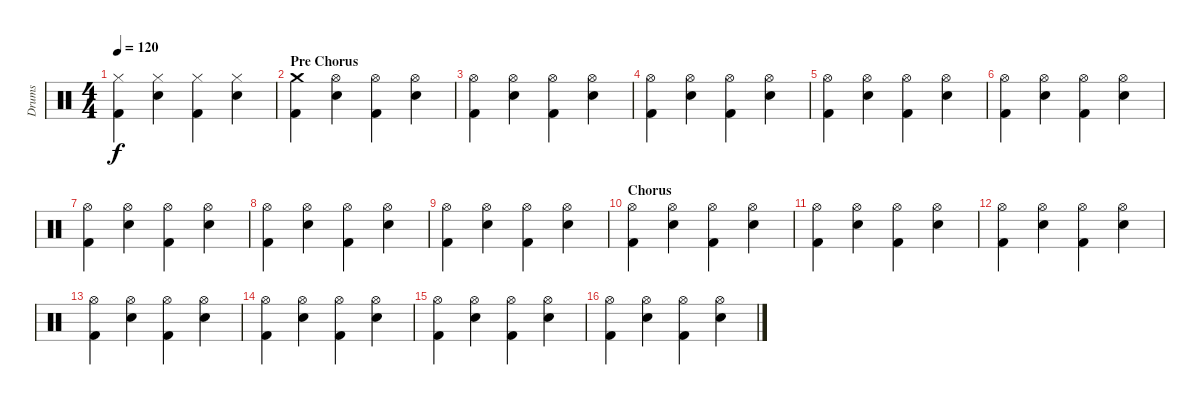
\track ("Drums" "Drums") {instrument percussion}
\staff {score}
\articulation defaults
\ts (4 4)
\tempo 120
\clef neutral
\ks c
("Hi-Hat (closed)" "Kick (hit) 2").4{dy f} ("Hi-Hat (closed)" "Electric Snare (hit)").4 ("Hi-Hat (closed)" "Kick (hit) 2").4 ("Hi-Hat (closed)" "Electric Snare (hit)").4 |
\section ("" "Pre Chorus")
("Crash medium (hit)" "Kick (hit) 2").4 ("Hi-Hat (open)" "Electric Snare (hit)").4 ("Hi-Hat (open)" "Kick (hit) 2").4 ("Hi-Hat (open)" "Electric Snare (hit)").4 |
("Hi-Hat (open)" "Kick (hit) 2").4 ("Hi-Hat (open)" "Electric Snare (hit)").4 ("Hi-Hat (open)" "Kick (hit) 2").4 ("Hi-Hat (open)" "Electric Snare (hit)").4 |
("Hi-Hat (open)" "Kick (hit) 2").4 ("Hi-Hat (open)" "Electric Snare (hit)").4 ("Hi-Hat (open)" "Kick (hit) 2").4 ("Hi-Hat (open)" "Electric Snare (hit)").4 |
("Hi-Hat (open)" "Kick (hit) 2").4 ("Hi-Hat (open)" "Electric Snare (hit)").4 ("Hi-Hat (open)" "Kick (hit) 2").4 ("Hi-Hat (open)" "Electric Snare (hit)").4 |
("Hi-Hat (open)" "Kick (hit) 2").4 ("Hi-Hat (open)" "Electric Snare (hit)").4 ("Hi-Hat (open)" "Kick (hit) 2").4 ("Hi-Hat (open)" "Electric Snare (hit)").4 |
("Hi-Hat (open)" "Kick (hit) 2").4 ("Hi-Hat (open)" "Electric Snare (hit)").4 ("Hi-Hat (open)" "Kick (hit) 2").4 ("Hi-Hat (open)" "Electric Snare (hit)").4 |
("Hi-Hat (open)" "Kick (hit) 2").4 ("Hi-Hat (open)" "Electric Snare (hit)").4 ("Hi-Hat (open)" "Kick (hit) 2").4 ("Hi-Hat (open)" "Electric Snare (hit)").4 |
("Hi-Hat (open)" "Kick (hit) 2").4 ("Hi-Hat (open)" "Electric Snare (hit)").4 ("Hi-Hat (open)" "Kick (hit) 2").4 ("Hi-Hat (open)" "Electric Snare (hit)").4 |
\section ("" "Chorus")
("Hi-Hat (open)" "Kick (hit) 2").4 ("Hi-Hat (open)" "Electric Snare (hit)").4 ("Hi-Hat (open)" "Kick (hit) 2").4 ("Hi-Hat (open)" "Electric Snare (hit)").4 |
("Hi-Hat (open)" "Kick (hit) 2").4 ("Hi-Hat (open)" "Electric Snare (hit)").4 ("Hi-Hat (open)" "Kick (hit) 2").4 ("Hi-Hat (open)" "Electric Snare (hit)").4 |
("Hi-Hat (open)" "Kick (hit) 2").4 ("Hi-Hat (open)" "Electric Snare (hit)").4 ("Hi-Hat (open)" "Kick (hit) 2").4 ("Hi-Hat (open)" "Electric Snare (hit)").4 |
("Hi-Hat (open)" "Kick (hit) 2").4 ("Hi-Hat (open)" "Electric Snare (hit)").4 ("Hi-Hat (open)" "Kick (hit) 2").4 ("Hi-Hat (open)" "Electric Snare (hit)").4 |
("Hi-Hat (open)" "Kick (hit) 2").4 ("Hi-Hat (open)" "Electric Snare (hit)").4 ("Hi-Hat (open)" "Kick (hit) 2").4 ("Hi-Hat (open)" "Electric Snare (hit)").4 |
("Hi-Hat (open)" "Kick (hit) 2").4 ("Hi-Hat (open)" "Electric Snare (hit)").4 ("Hi-Hat (open)" "Kick (hit) 2").4 ("Hi-Hat (open)" "Electric Snare (hit)").4 |
("Hi-Hat (open)" "Kick (hit) 2").4 ("Hi-Hat (open)" "Electric Snare (hit)").4 ("Hi-Hat (open)" "Kick (hit) 2").4 ("Hi-Hat (open)" "Electric Snare (hit)").4
